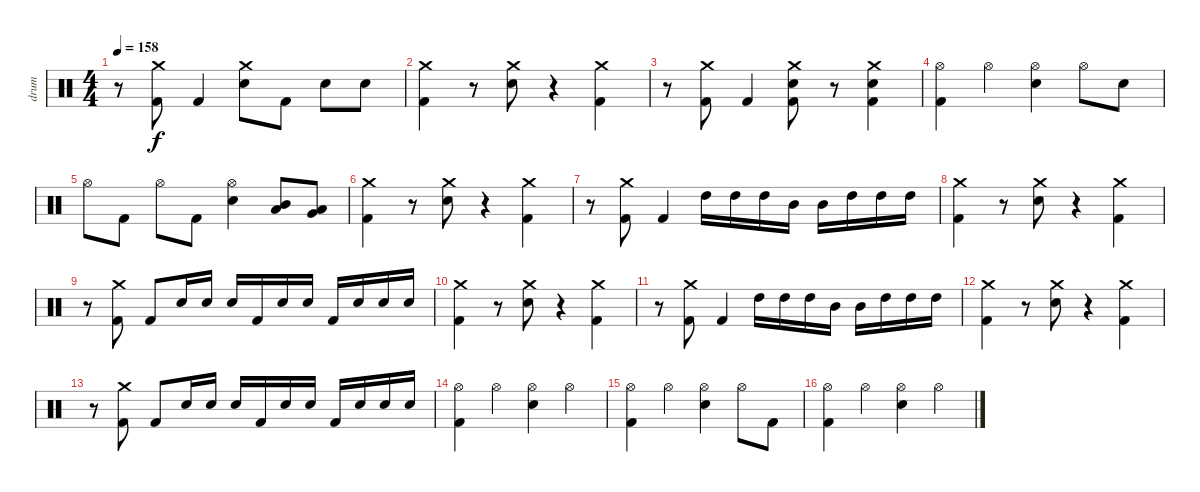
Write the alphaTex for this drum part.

\track ("drum" "drum") {instrument percussion}
\staff {score}
\articulation defaults
\ts (4 4)
\tempo 158
\clef neutral
\ks c
r.8{dy f} ("Crash medium (hit)" "Kick (hit) 2").8 "Kick (hit) 2".4 ("Crash medium (hit)" "Electric Snare (hit)").8 "Kick (hit) 2".8 "Electric Snare (hit)".8 "Electric Snare (hit)".8 |
("Crash medium (hit)" "Kick (hit) 2").4 r.8 ("Crash medium (hit)" "Electric Snare (hit)").8 r.4 ("Crash medium (hit)" "Kick (hit) 2").4 |
r.8 ("Crash medium (hit)" "Kick (hit) 2").8 "Kick (hit) 2".4 ("Crash medium (hit)" "Electric Snare (hit)" "Kick (hit) 2").8 r.8 ("Crash medium (hit)" "Electric Snare (hit)" "Kick (hit) 2").4 |
("Hi-Hat (open)" "Kick (hit) 2").4 "Hi-Hat (open)".4 ("Hi-Hat (open)" "Electric Snare (hit)").4 "Hi-Hat (open)".8 "Electric Snare (hit)".8 |
"Hi-Hat (open)".8 "Kick (hit) 2".8 "Hi-Hat (open)".8 "Kick (hit) 2".8 ("Hi-Hat (open)" "Electric Snare (hit)").4 ("Mid Tom (hit)" "Low Tom (hit)").8 ("Low Tom (hit)" "Very Low Tom (hit)").8 |
("Crash medium (hit)" "Kick (hit) 2").4 r.8 ("Crash medium (hit)" "Electric Snare (hit)").8 r.4 ("Crash medium (hit)" "Kick (hit) 2").4 |
r.8 ("Crash medium (hit)" "Kick (hit) 2").8 "Kick (hit) 2".4 "High Tom (hit)".16 "High Tom (hit)".16 "High Tom (hit)".16 "Mid Tom (hit)".16 "Mid Tom (hit)".16 "High Tom (hit)".16 "High Tom (hit)".16 "High Tom (hit)".16 |
("Crash medium (hit)" "Kick (hit) 2").4 r.8 ("Crash medium (hit)" "Electric Snare (hit)").8 r.4 ("Crash medium (hit)" "Kick (hit) 2").4 |
r.8 ("Crash medium (hit)" "Kick (hit) 2").8 "Kick (hit) 2".8 "Electric Snare (hit)".16 "Electric Snare (hit)".16 "Electric Snare (hit)".16 "Kick (hit) 2".16 "Electric Snare (hit)".16 "Electric Snare (hit)".16 "Kick (hit) 2".16 "Electric Snare (hit)".16 "Electric Snare (hit)".16 "Electric Snare (hit)".16 |
("Crash medium (hit)" "Kick (hit) 2").4 r.8 ("Crash medium (hit)" "Electric Snare (hit)").8 r.4 ("Crash medium (hit)" "Kick (hit) 2").4 |
r.8 ("Crash medium (hit)" "Kick (hit) 2").8 "Kick (hit) 2".4 "High Tom (hit)".16 "High Tom (hit)".16 "High Tom (hit)".16 "Mid Tom (hit)".16 "Mid Tom (hit)".16 "High Tom (hit)".16 "High Tom (hit)".16 "High Tom (hit)".16 |
("Crash medium (hit)" "Kick (hit) 2").4 r.8 ("Crash medium (hit)" "Electric Snare (hit)").8 r.4 ("Crash medium (hit)" "Kick (hit) 2").4 |
r.8 ("Crash medium (hit)" "Kick (hit) 2").8 "Kick (hit) 2".8 "Electric Snare (hit)".16 "Electric Snare (hit)".16 "Electric Snare (hit)".16 "Kick (hit) 2".16 "Electric Snare (hit)".16 "Electric Snare (hit)".16 "Kick (hit) 2".16 "Electric Snare (hit)".16 "Electric Snare (hit)".16 "Electric Snare (hit)".16 |
("Hi-Hat (open)" "Kick (hit) 2").4 "Hi-Hat (open)".4 ("Hi-Hat (open)" "Electric Snare (hit)").4 "Hi-Hat (open)".4 |
("Hi-Hat (open)" "Kick (hit) 2").4 "Hi-Hat (open)".4 ("Hi-Hat (open)" "Electric Snare (hit)").4 "Hi-Hat (open)".8 "Kick (hit) 2".8 |
("Hi-Hat (open)" "Kick (hit) 2").4 "Hi-Hat (open)".4 ("Hi-Hat (open)" "Electric Snare (hit)").4 "Hi-Hat (open)".4
